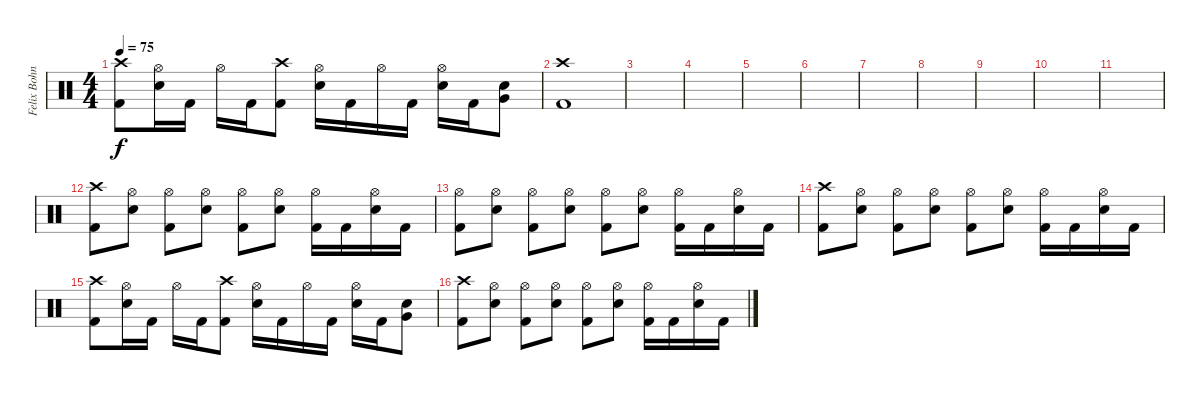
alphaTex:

\track ("Felix Bohnke" "Felix Bohn") {instrument percussion}
\staff {score}
\articulation defaults
\ts (4 4)
\tempo 75
\clef neutral
\ks c
("Crash high (hit)" "Kick (hit) 2").8{dy f} ("Hi-Hat (open)" "Snare (hit) 2").16 "Kick (hit) 2".16 "Hi-Hat (open)".16 "Kick (hit) 2".16 ("Crash high (hit)" "Kick (hit) 2").8 ("Hi-Hat (open)" "Snare (hit) 2").16 "Kick (hit) 2".16 "Hi-Hat (open)".16 "Kick (hit) 2".16 ("Hi-Hat (open)" "Snare (hit) 2").16 "Kick (hit) 2".16 ("Snare (hit) 2" "Very Low Tom (hit)").8 |
("Crash high (hit)" "Kick (hit) 2").1 |
|
|
|
|
|
|
|
|
|
("Crash high (hit)" "Kick (hit) 2").8 ("Hi-Hat (open)" "Snare (hit) 2").8 ("Hi-Hat (open)" "Kick (hit) 2").8 ("Hi-Hat (open)" "Snare (hit) 2").8 ("Hi-Hat (open)" "Kick (hit) 2").8 ("Hi-Hat (open)" "Snare (hit) 2").8 ("Hi-Hat (open)" "Kick (hit) 2").16 "Kick (hit) 2".16 ("Hi-Hat (open)" "Snare (hit) 2").16 "Kick (hit) 2".16 |
("Hi-Hat (open)" "Kick (hit) 2").8 ("Hi-Hat (open)" "Snare (hit) 2").8 ("Hi-Hat (open)" "Kick (hit) 2").8 ("Hi-Hat (open)" "Snare (hit) 2").8 ("Hi-Hat (open)" "Kick (hit) 2").8 ("Hi-Hat (open)" "Snare (hit) 2").8 ("Hi-Hat (open)" "Kick (hit) 2").16 "Kick (hit) 2".16 ("Hi-Hat (open)" "Snare (hit) 2").16 "Kick (hit) 2".16 |
("Crash high (hit)" "Kick (hit) 2").8 ("Hi-Hat (open)" "Snare (hit) 2").8 ("Hi-Hat (open)" "Kick (hit) 2").8 ("Hi-Hat (open)" "Snare (hit) 2").8 ("Hi-Hat (open)" "Kick (hit) 2").8 ("Hi-Hat (open)" "Snare (hit) 2").8 ("Hi-Hat (open)" "Kick (hit) 2").16 "Kick (hit) 2".16 ("Hi-Hat (open)" "Snare (hit) 2").16 "Kick (hit) 2".16 |
("Crash high (hit)" "Kick (hit) 2").8 ("Hi-Hat (open)" "Snare (hit) 2").16 "Kick (hit) 2".16 "Hi-Hat (open)".16 "Kick (hit) 2".16 ("Crash high (hit)" "Kick (hit) 2").8 ("Hi-Hat (open)" "Snare (hit) 2").16 "Kick (hit) 2".16 "Hi-Hat (open)".16 "Kick (hit) 2".16 ("Hi-Hat (open)" "Snare (hit) 2").16 "Kick (hit) 2".16 ("Snare (hit) 2" "Very Low Tom (hit)").8 |
("Crash high (hit)" "Kick (hit) 2").8 ("Hi-Hat (open)" "Snare (hit) 2").8 ("Hi-Hat (open)" "Kick (hit) 2").8 ("Hi-Hat (open)" "Snare (hit) 2").8 ("Hi-Hat (open)" "Kick (hit) 2").8 ("Hi-Hat (open)" "Snare (hit) 2").8 ("Hi-Hat (open)" "Kick (hit) 2").16 "Kick (hit) 2".16 ("Hi-Hat (open)" "Snare (hit) 2").16 "Kick (hit) 2".16
